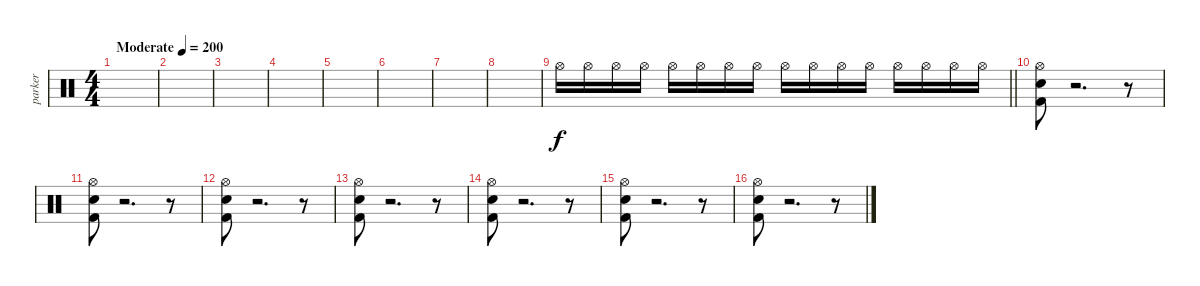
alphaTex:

\track ("parker" "parker") {instrument percussion}
\staff {score}
\articulation defaults
\ts (4 4)
\tempo (200 "Moderate")
\clef neutral
\ks c
|
|
|
|
|
|
|
|
\barLineRight lightlight "Hi-Hat (open)".16{volume 0} "Hi-Hat (open)".16{volume 13} "Hi-Hat (open)".16 "Hi-Hat (open)".16 "Hi-Hat (open)".16 "Hi-Hat (open)".16 "Hi-Hat (open)".16 "Hi-Hat (open)".16 "Hi-Hat (open)".16 "Hi-Hat (open)".16 "Hi-Hat (open)".16 "Hi-Hat (open)".16 "Hi-Hat (open)".16 "Hi-Hat (open)".16 "Hi-Hat (open)".16 "Hi-Hat (open)".16
|
("Hi-Hat (open)" "Kick (hit) 2" "Snare (hit)").8 r.2{d} r.8 |
("Hi-Hat (open)" "Kick (hit) 2" "Snare (hit)").8 r.2{d} r.8 |
("Hi-Hat (open)" "Kick (hit) 2" "Snare (hit)").8 r.2{d} r.8 |
("Hi-Hat (open)" "Kick (hit) 2" "Snare (hit)").8 r.2{d} r.8 |
("Hi-Hat (open)" "Kick (hit) 2" "Snare (hit)").8 r.2{d} r.8 |
("Hi-Hat (open)" "Kick (hit) 2" "Snare (hit)").8 r.2{d} r.8 |
("Hi-Hat (open)" "Kick (hit) 2" "Snare (hit)").8 r.2{d} r.8
